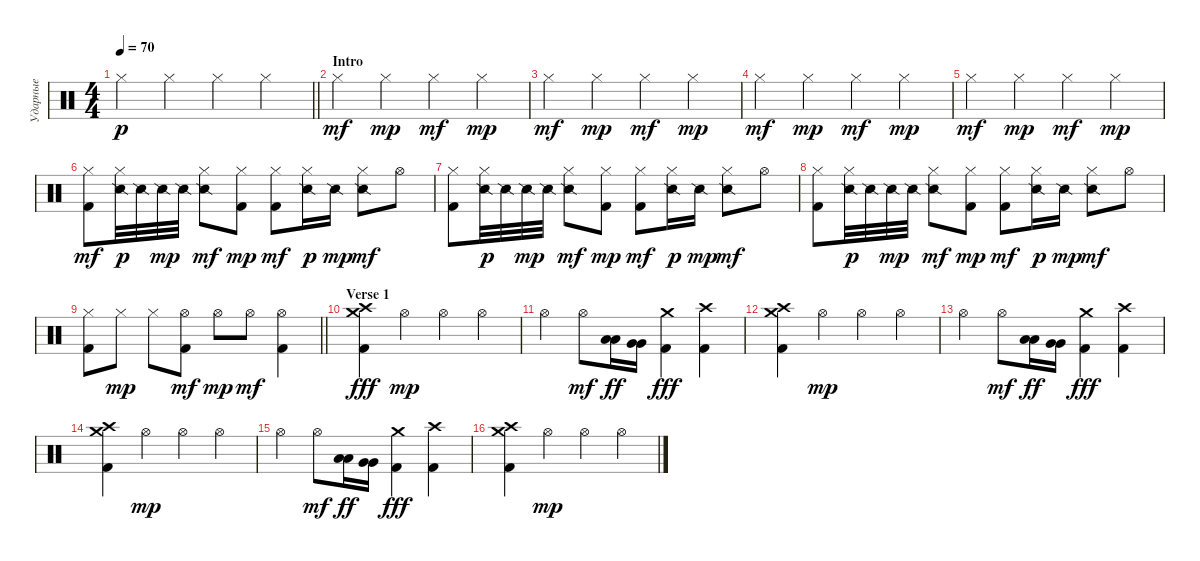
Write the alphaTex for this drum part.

\track ("Ударные" "Ударные") {instrument percussion}
\staff {score}
\articulation defaults
\ts (4 4)
\tempo 70
\tempo 60
\tempo 70
\clef neutral
\barLineRight lightlight
\ks aminor "Hi-Hat (closed)".4{dy p} "Hi-Hat (closed)".4 "Hi-Hat (closed)".4 "Hi-Hat (closed)".4
|
\section ("" "Intro")
"Hi-Hat (closed)".4{dy mf} "Hi-Hat (closed)".4{dy mp} "Hi-Hat (closed)".4{dy mf} "Hi-Hat (closed)".4{dy mp} |
"Hi-Hat (closed)".4{dy mf} "Hi-Hat (closed)".4{dy mp} "Hi-Hat (closed)".4{dy mf} "Hi-Hat (closed)".4{dy mp} |
"Hi-Hat (closed)".4{dy mf} "Hi-Hat (closed)".4{dy mp} "Hi-Hat (closed)".4{dy mf} "Hi-Hat (closed)".4{dy mp} |
"Hi-Hat (closed)".4{dy mf} "Hi-Hat (closed)".4{dy mp} "Hi-Hat (closed)".4{dy mf} "Hi-Hat (closed)".4{dy mp} |
("Hi-Hat (closed)" "Kick (hit) 2").8{dy mf} ("Hi-Hat (closed)" "Snare (side stick) 2").32{dy p} "Snare (side stick) 2".32 "Snare (side stick) 2".32{dy mp} "Snare (side stick) 2".32 ("Hi-Hat (closed)" "Snare (side stick) 2").8{dy mf} ("Hi-Hat (closed)" "Kick (hit) 2").8{dy mp} ("Hi-Hat (closed)" "Kick (hit) 2").8{dy mf} ("Hi-Hat (closed)" "Snare (side stick) 2").16{dy p} "Snare (side stick) 2".16{dy mp} ("Hi-Hat (closed)" "Snare (side stick) 2").8{dy mf} "Hi-Hat (open)".8 |
("Hi-Hat (closed)" "Kick (hit) 2").8 ("Hi-Hat (closed)" "Snare (side stick) 2").32{dy p} "Snare (side stick) 2".32 "Snare (side stick) 2".32{dy mp} "Snare (side stick) 2".32 ("Hi-Hat (closed)" "Snare (side stick) 2").8{dy mf} ("Hi-Hat (closed)" "Kick (hit) 2").8{dy mp} ("Hi-Hat (closed)" "Kick (hit) 2").8{dy mf} ("Hi-Hat (closed)" "Snare (side stick) 2").16{dy p} "Snare (side stick) 2".16{dy mp} ("Hi-Hat (closed)" "Snare (side stick) 2").8{dy mf} "Hi-Hat (open)".8 |
("Hi-Hat (closed)" "Kick (hit) 2").8 ("Hi-Hat (closed)" "Snare (side stick) 2").32{dy p} "Snare (side stick) 2".32 "Snare (side stick) 2".32{dy mp} "Snare (side stick) 2".32 ("Hi-Hat (closed)" "Snare (side stick) 2").8{dy mf} ("Hi-Hat (closed)" "Kick (hit) 2").8{dy mp} ("Hi-Hat (closed)" "Kick (hit) 2").8{dy mf} ("Hi-Hat (closed)" "Snare (side stick) 2").16{dy p} "Snare (side stick) 2".16{dy mp} ("Hi-Hat (closed)" "Snare (side stick) 2").8{dy mf} "Hi-Hat (open)".8 |
\barLineRight lightlight
("Hi-Hat (closed)" "Kick (hit) 2").8 "Hi-Hat (closed)".8{dy mp} "Hi-Hat (closed)".8 ("Hi-Hat (open)" "Kick (hit) 2").8{dy mf} "Hi-Hat (open)".8{dy mp} "Hi-Hat (open)".8{dy mf} ("Hi-Hat (open)" "Kick (hit) 2").4 |
\section ("" "Verse 1")
("Crash medium (hit)" "Crash high (hit)" "Kick (hit) 2").4{dy fff} "Hi-Hat (open)".4{dy mp} "Hi-Hat (open)".4 "Hi-Hat (open)".4 |
"Hi-Hat (open)".4 "Hi-Hat (open)".8{dy mf} ("Low Tom (hit)" "Low Tom (hit)").16{dy ff} ("Very Low Tom (hit)" "Very Low Tom (hit)").16 ("Crash medium (hit)" "Kick (hit) 2").4{dy fff} ("Crash high (hit)" "Kick (hit) 2").4 |
("Crash medium (hit)" "Crash high (hit)" "Kick (hit) 2").4 "Hi-Hat (open)".4{dy mp} "Hi-Hat (open)".4 "Hi-Hat (open)".4 |
"Hi-Hat (open)".4 "Hi-Hat (open)".8{dy mf} ("Low Tom (hit)" "Low Tom (hit)").16{dy ff} ("Very Low Tom (hit)" "Very Low Tom (hit)").16 ("Crash medium (hit)" "Kick (hit) 2").4{dy fff} ("Crash high (hit)" "Kick (hit) 2").4 |
("Crash medium (hit)" "Crash high (hit)" "Kick (hit) 2").4 "Hi-Hat (open)".4{dy mp} "Hi-Hat (open)".4 "Hi-Hat (open)".4 |
"Hi-Hat (open)".4 "Hi-Hat (open)".8{dy mf} ("Low Tom (hit)" "Low Tom (hit)").16{dy ff} ("Very Low Tom (hit)" "Very Low Tom (hit)").16 ("Crash medium (hit)" "Kick (hit) 2").4{dy fff} ("Crash high (hit)" "Kick (hit) 2").4 |
("Crash medium (hit)" "Crash high (hit)" "Kick (hit) 2").4 "Hi-Hat (open)".4{dy mp} "Hi-Hat (open)".4 "Hi-Hat (open)".4
